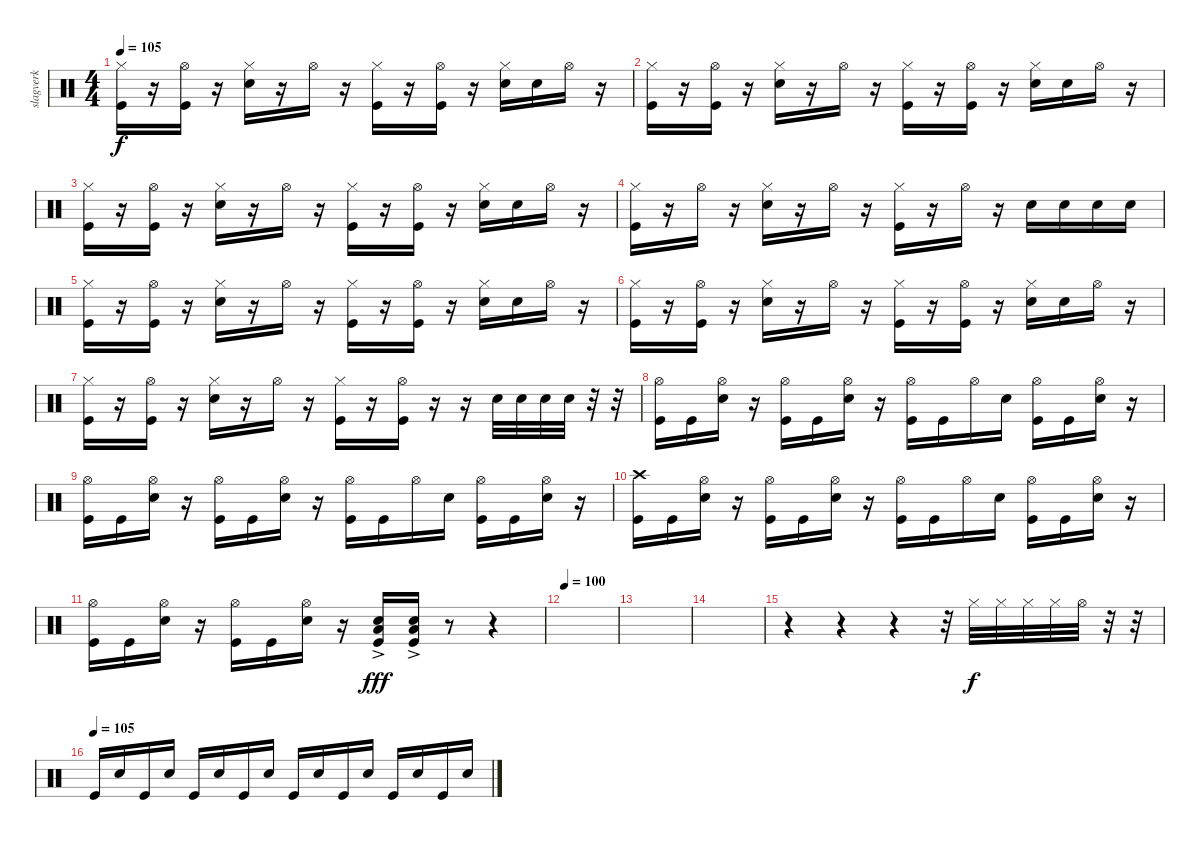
\track ("slagverk" "slagverk") {instrument percussion}
\staff {score}
\articulation defaults
\ts (4 4)
\tempo 105
\clef neutral
\ks c
("Hi-Hat (closed)" "Kick (hit)").16{dy f} r.16 ("Hi-Hat (open)" "Kick (hit)").16 r.16 ("Hi-Hat (closed)" "Snare (hit) 2").16 r.16 "Hi-Hat (open)".16 r.16 ("Hi-Hat (closed)" "Kick (hit)").16 r.16 ("Hi-Hat (open)" "Kick (hit)").16 r.16 ("Hi-Hat (closed)" "Snare (hit) 2").16 "Snare (hit) 2".16 "Hi-Hat (open)".16 r.16 |
("Hi-Hat (closed)" "Kick (hit)").16 r.16 ("Hi-Hat (open)" "Kick (hit)").16 r.16 ("Hi-Hat (closed)" "Snare (hit) 2").16 r.16 "Hi-Hat (open)".16 r.16 ("Hi-Hat (closed)" "Kick (hit)").16 r.16 ("Hi-Hat (open)" "Kick (hit)").16 r.16 ("Hi-Hat (closed)" "Snare (hit) 2").16 "Snare (hit) 2".16 "Hi-Hat (open)".16 r.16 |
("Hi-Hat (closed)" "Kick (hit)").16 r.16 ("Hi-Hat (open)" "Kick (hit)").16 r.16 ("Hi-Hat (closed)" "Snare (hit) 2").16 r.16 "Hi-Hat (open)".16 r.16 ("Hi-Hat (closed)" "Kick (hit)").16 r.16 ("Hi-Hat (open)" "Kick (hit)").16 r.16 ("Hi-Hat (closed)" "Snare (hit) 2").16 "Snare (hit) 2".16 "Hi-Hat (open)".16 r.16 |
("Hi-Hat (closed)" "Kick (hit)").16 r.16 "Hi-Hat (open)".16 r.16 ("Hi-Hat (closed)" "Snare (hit) 2").16 r.16 "Hi-Hat (open)".16 r.16 ("Hi-Hat (closed)" "Kick (hit)").16 r.16 "Hi-Hat (open)".16 r.16 "Snare (hit) 2".16 "Snare (hit) 2".16 "Snare (hit) 2".16 "Snare (hit) 2".16 |
("Hi-Hat (closed)" "Kick (hit)").16 r.16 ("Hi-Hat (open)" "Kick (hit)").16 r.16 ("Hi-Hat (closed)" "Snare (hit) 2").16 r.16 "Hi-Hat (open)".16 r.16 ("Hi-Hat (closed)" "Kick (hit)").16 r.16 ("Hi-Hat (open)" "Kick (hit)").16 r.16 ("Hi-Hat (closed)" "Snare (hit) 2").16 "Snare (hit) 2".16 "Hi-Hat (open)".16 r.16 |
("Hi-Hat (closed)" "Kick (hit)").16 r.16 ("Hi-Hat (open)" "Kick (hit)").16 r.16 ("Hi-Hat (closed)" "Snare (hit) 2").16 r.16 "Hi-Hat (open)".16 r.16 ("Hi-Hat (closed)" "Kick (hit)").16 r.16 ("Hi-Hat (open)" "Kick (hit)").16 r.16 ("Hi-Hat (closed)" "Snare (hit) 2").16 "Snare (hit) 2".16 "Hi-Hat (open)".16 r.16 |
("Hi-Hat (closed)" "Kick (hit)").16 r.16 ("Hi-Hat (open)" "Kick (hit)").16 r.16 ("Hi-Hat (closed)" "Snare (hit) 2").16 r.16 "Hi-Hat (open)".16 r.16 ("Hi-Hat (closed)" "Kick (hit)").16 r.16 ("Hi-Hat (open)" "Kick (hit)").16 r.16 r.16 "Snare (hit) 2".32 "Snare (hit) 2".32 "Snare (hit) 2".32 "Snare (hit) 2".32 r.32 r.32 |
("Hi-Hat (open)" "Kick (hit)").16 "Kick (hit)".16 ("Hi-Hat (open)" "Snare (hit) 2").16 r.16 ("Hi-Hat (open)" "Kick (hit)").16 "Kick (hit)".16 ("Hi-Hat (open)" "Snare (hit) 2").16 r.16 ("Hi-Hat (open)" "Kick (hit)").16 "Kick (hit)".16 "Hi-Hat (open)".16 "Snare (hit) 2".16 ("Hi-Hat (open)" "Kick (hit)").16 "Kick (hit)".16 ("Hi-Hat (open)" "Snare (hit) 2").16 r.16 |
("Hi-Hat (open)" "Kick (hit)").16 "Kick (hit)".16 ("Hi-Hat (open)" "Snare (hit) 2").16 r.16 ("Hi-Hat (open)" "Kick (hit)").16 "Kick (hit)".16 ("Hi-Hat (open)" "Snare (hit) 2").16 r.16 ("Hi-Hat (open)" "Kick (hit)").16 "Kick (hit)".16 "Hi-Hat (open)".16 "Snare (hit) 2".16 ("Hi-Hat (open)" "Kick (hit)").16 "Kick (hit)".16 ("Hi-Hat (open)" "Snare (hit) 2").16 r.16 |
("Crash high (hit)" "Kick (hit)").16 "Kick (hit)".16 ("Hi-Hat (open)" "Snare (hit) 2").16 r.16 ("Hi-Hat (open)" "Kick (hit)").16 "Kick (hit)".16 ("Hi-Hat (open)" "Snare (hit) 2").16 r.16 ("Hi-Hat (open)" "Kick (hit)").16 "Kick (hit)".16 "Hi-Hat (open)".16 "Snare (hit) 2".16 ("Hi-Hat (open)" "Kick (hit)").16 "Kick (hit)".16 ("Hi-Hat (open)" "Snare (hit) 2").16 r.16 |
("Hi-Hat (open)" "Kick (hit)").16 "Kick (hit)".16 ("Hi-Hat (open)" "Snare (hit) 2").16 r.16 ("Hi-Hat (open)" "Kick (hit)").16 "Kick (hit)".16 ("Hi-Hat (open)" "Snare (hit) 2").16 r.16 ("Snare (hit) 2" "Low Floor Tom (hit)"{ac} "Kick (hit)").16{dy fff} ("Snare (hit) 2" "Low Floor Tom (hit)"{ac} "Kick (hit)").16 r.8 r.4 |
\tempo 100
|
|
|
r.4 r.4 r.4 r.32 "Hi-Hat (closed)".32{dy f} "Hi-Hat (closed)".32 "Hi-Hat (closed)".32 "Hi-Hat (closed)".32 "Hi-Hat (open)".32 r.32 r.32 |
\tempo (105)
"Kick (hit)".16 "Snare (hit) 2".16 "Kick (hit)".16 "Snare (hit) 2".16 "Kick (hit)".16 "Snare (hit) 2".16 "Kick (hit)".16 "Snare (hit) 2".16 "Kick (hit)".16 "Snare (hit) 2".16 "Kick (hit)".16 "Snare (hit) 2".16 "Kick (hit)".16 "Snare (hit) 2".16 "Kick (hit)".16 "Snare (hit) 2".16
